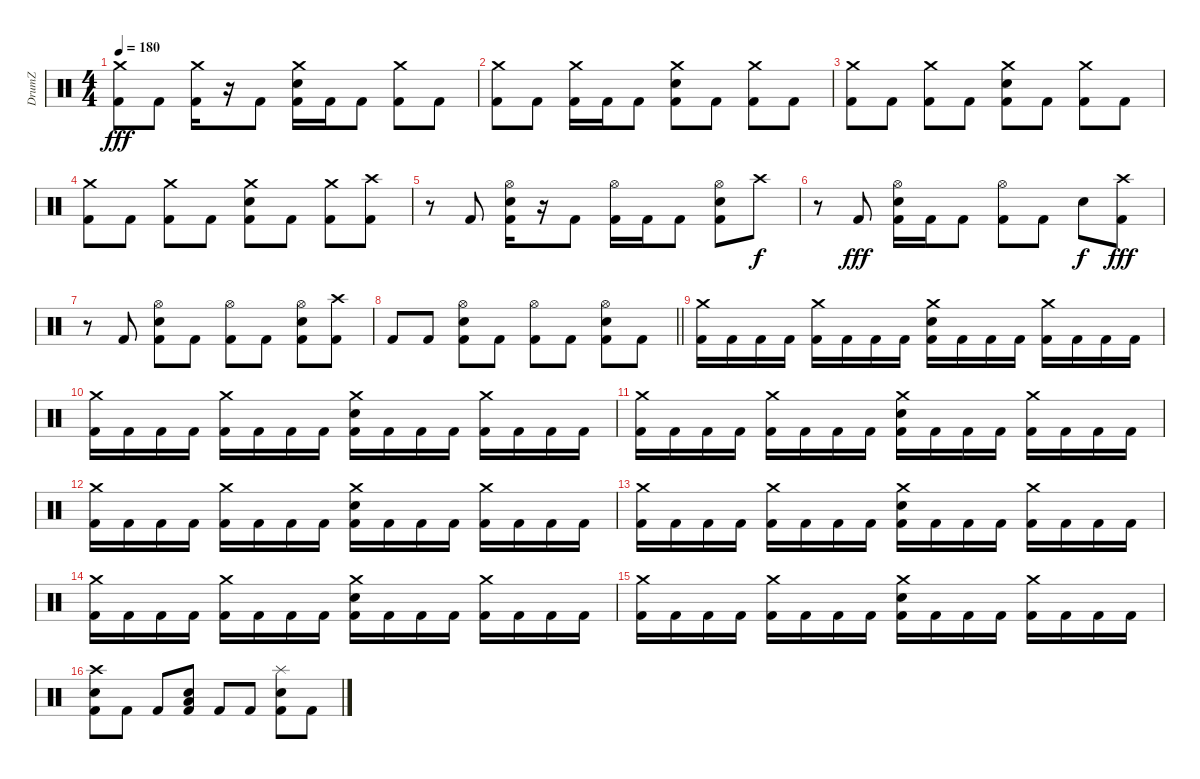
\track ("DrumZ" "DrumZ") {instrument percussion}
\staff {score}
\articulation defaults
\ts (4 4)
\tempo 180
\clef neutral
\ks c
("Crash medium (hit)" "Kick (hit) 2").8{dy fff} "Kick (hit) 2".8 ("Crash medium (hit)" "Kick (hit) 2").16 r.16 "Kick (hit) 2".8 ("Crash medium (hit)" "Electric Snare (hit)" "Kick (hit) 2").16 "Kick (hit) 2".16 "Kick (hit) 2".8 ("Crash medium (hit)" "Kick (hit) 2").8 "Kick (hit) 2".8 |
("Crash medium (hit)" "Kick (hit) 2").8 "Kick (hit) 2".8 ("Crash medium (hit)" "Kick (hit) 2").16 "Kick (hit) 2".16 "Kick (hit) 2".8 ("Crash medium (hit)" "Electric Snare (hit)" "Kick (hit) 2").8 "Kick (hit) 2".8 ("Crash medium (hit)" "Kick (hit) 2").8 "Kick (hit) 2".8 |
("Crash medium (hit)" "Kick (hit) 2").8 "Kick (hit) 2".8 ("Crash medium (hit)" "Kick (hit) 2").8 "Kick (hit) 2".8 ("Crash medium (hit)" "Electric Snare (hit)" "Kick (hit) 2").8 "Kick (hit) 2".8 ("Crash medium (hit)" "Kick (hit) 2").8 "Kick (hit) 2".8 |
("Crash medium (hit)" "Kick (hit) 2").8 "Kick (hit) 2".8 ("Crash medium (hit)" "Kick (hit) 2").8 "Kick (hit) 2".8 ("Crash medium (hit)" "Electric Snare (hit)" "Kick (hit) 2").8 "Kick (hit) 2".8 ("Crash medium (hit)" "Kick (hit) 2").8 ("Crash high (hit)" "Kick (hit) 2").8 |
r.8 "Kick (hit) 2".8 ("Hi-Hat (open)" "Electric Snare (hit)" "Kick (hit) 2").16 r.16 "Kick (hit) 2".8 ("Hi-Hat (open)" "Kick (hit) 2").16 "Kick (hit) 2".16 "Kick (hit) 2".8 ("Hi-Hat (open)" "Electric Snare (hit)" "Kick (hit) 2").8 "Crash high (hit)".8{dy f} |
r.8 "Kick (hit) 2".8{dy fff} ("Hi-Hat (open)" "Electric Snare (hit)" "Kick (hit) 2").16 "Kick (hit) 2".16 "Kick (hit) 2".8 ("Hi-Hat (open)" "Kick (hit) 2").8 "Kick (hit) 2".8 "Electric Snare (hit)".8{dy f} ("Crash high (hit)" "Kick (hit) 2").8{dy fff} |
r.8 "Kick (hit) 2".8 ("Hi-Hat (open)" "Electric Snare (hit)" "Kick (hit) 2").8 "Kick (hit) 2".8 ("Hi-Hat (open)" "Kick (hit) 2").8 "Kick (hit) 2".8 ("Hi-Hat (open)" "Electric Snare (hit)" "Kick (hit) 2").8 ("Crash high (hit)" "Kick (hit) 2").8 |
\barLineRight lightlight "Kick (hit) 2".8 "Kick (hit) 2".8
("Hi-Hat (open)" "Electric Snare (hit)" "Kick (hit) 2").8 "Kick (hit) 2".8 ("Hi-Hat (open)" "Kick (hit) 2").8 "Kick (hit) 2".8 ("Hi-Hat (open)" "Electric Snare (hit)" "Kick (hit) 2").8 "Kick (hit) 2".8 |
\section ("" "")
("Crash medium (hit)" "Kick (hit) 2").16 "Kick (hit) 2".16 "Kick (hit) 2".16 "Kick (hit) 2".16 ("Crash medium (hit)" "Kick (hit) 2").16 "Kick (hit) 2".16 "Kick (hit) 2".16 "Kick (hit) 2".16 ("Crash medium (hit)" "Electric Snare (hit)" "Kick (hit) 2").16 "Kick (hit) 2".16 "Kick (hit) 2".16 "Kick (hit) 2".16 ("Crash medium (hit)" "Kick (hit) 2").16 "Kick (hit) 2".16 "Kick (hit) 2".16 "Kick (hit) 2".16 |
("Crash medium (hit)" "Kick (hit) 2").16 "Kick (hit) 2".16 "Kick (hit) 2".16 "Kick (hit) 2".16 ("Crash medium (hit)" "Kick (hit) 2").16 "Kick (hit) 2".16 "Kick (hit) 2".16 "Kick (hit) 2".16 ("Crash medium (hit)" "Electric Snare (hit)" "Kick (hit) 2").16 "Kick (hit) 2".16 "Kick (hit) 2".16 "Kick (hit) 2".16 ("Crash medium (hit)" "Kick (hit) 2").16 "Kick (hit) 2".16 "Kick (hit) 2".16 "Kick (hit) 2".16 |
("Crash medium (hit)" "Kick (hit) 2").16 "Kick (hit) 2".16 "Kick (hit) 2".16 "Kick (hit) 2".16 ("Crash medium (hit)" "Kick (hit) 2").16 "Kick (hit) 2".16 "Kick (hit) 2".16 "Kick (hit) 2".16 ("Crash medium (hit)" "Electric Snare (hit)" "Kick (hit) 2").16 "Kick (hit) 2".16 "Kick (hit) 2".16 "Kick (hit) 2".16 ("Crash medium (hit)" "Kick (hit) 2").16 "Kick (hit) 2".16 "Kick (hit) 2".16 "Kick (hit) 2".16 |
("Crash medium (hit)" "Kick (hit) 2").16 "Kick (hit) 2".16 "Kick (hit) 2".16 "Kick (hit) 2".16 ("Crash medium (hit)" "Kick (hit) 2").16 "Kick (hit) 2".16 "Kick (hit) 2".16 "Kick (hit) 2".16 ("Crash medium (hit)" "Electric Snare (hit)" "Kick (hit) 2").16 "Kick (hit) 2".16 "Kick (hit) 2".16 "Kick (hit) 2".16 ("Crash medium (hit)" "Kick (hit) 2").16 "Kick (hit) 2".16 "Kick (hit) 2".16 "Kick (hit) 2".16 |
("Crash medium (hit)" "Kick (hit) 2").16 "Kick (hit) 2".16 "Kick (hit) 2".16 "Kick (hit) 2".16 ("Crash medium (hit)" "Kick (hit) 2").16 "Kick (hit) 2".16 "Kick (hit) 2".16 "Kick (hit) 2".16 ("Crash medium (hit)" "Electric Snare (hit)" "Kick (hit) 2").16 "Kick (hit) 2".16 "Kick (hit) 2".16 "Kick (hit) 2".16 ("Crash medium (hit)" "Kick (hit) 2").16 "Kick (hit) 2".16 "Kick (hit) 2".16 "Kick (hit) 2".16 |
("Crash medium (hit)" "Kick (hit) 2").16 "Kick (hit) 2".16 "Kick (hit) 2".16 "Kick (hit) 2".16 ("Crash medium (hit)" "Kick (hit) 2").16 "Kick (hit) 2".16 "Kick (hit) 2".16 "Kick (hit) 2".16 ("Crash medium (hit)" "Electric Snare (hit)" "Kick (hit) 2").16 "Kick (hit) 2".16 "Kick (hit) 2".16 "Kick (hit) 2".16 ("Crash medium (hit)" "Kick (hit) 2").16 "Kick (hit) 2".16 "Kick (hit) 2".16 "Kick (hit) 2".16 |
("Crash medium (hit)" "Kick (hit) 2").16 "Kick (hit) 2".16 "Kick (hit) 2".16 "Kick (hit) 2".16 ("Crash medium (hit)" "Kick (hit) 2").16 "Kick (hit) 2".16 "Kick (hit) 2".16 "Kick (hit) 2".16 ("Crash medium (hit)" "Electric Snare (hit)" "Kick (hit) 2").16 "Kick (hit) 2".16 "Kick (hit) 2".16 "Kick (hit) 2".16 ("Crash medium (hit)" "Kick (hit) 2").16 "Kick (hit) 2".16 "Kick (hit) 2".16 "Kick (hit) 2".16 |
("Crash high (hit)" "Electric Snare (hit)" "Kick (hit) 2").8 "Kick (hit) 2".8 "Kick (hit) 2".8 ("Low Floor Tom (hit)" "Electric Snare (hit)" "Kick (hit) 2").8 "Kick (hit) 2".8 "Kick (hit) 2".8 ("Splash (hit)" "Electric Snare (hit)" "Kick (hit) 2").8 "Kick (hit) 2".8
